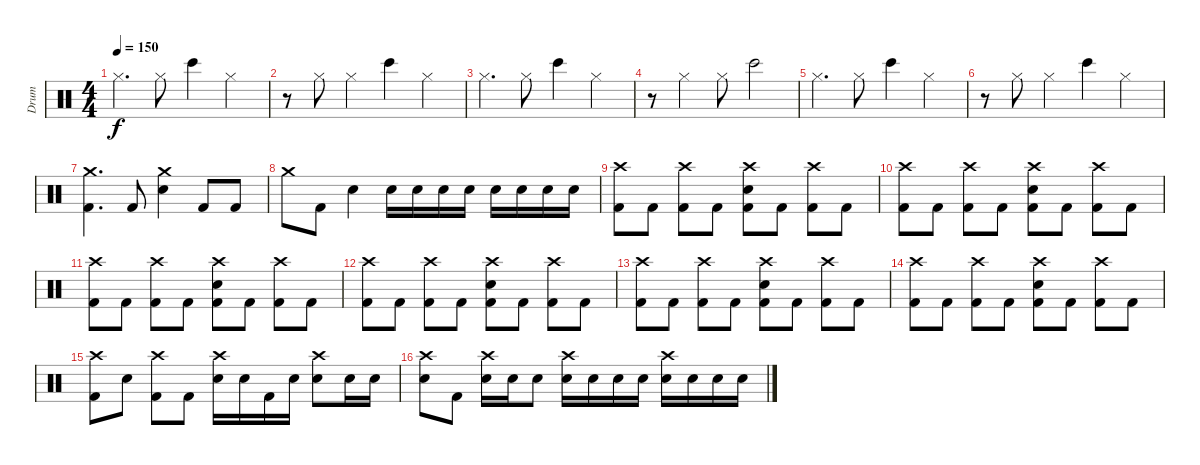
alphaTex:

\track ("Drum" "Drum") {instrument percussion}
\staff {score}
\articulation defaults
\ts (4 4)
\tempo 150
\clef neutral
\ks c "Hi-Hat (closed)".4{d dy f} "Hi-Hat (closed)".8 "Bongo High (hit)".4 "Hi-Hat (closed)".4
|
r.8 "Hi-Hat (closed)".8 "Hi-Hat (closed)".4 "Bongo High (hit)".4 "Hi-Hat (closed)".4 |
"Hi-Hat (closed)".4{d} "Hi-Hat (closed)".8 "Bongo High (hit)".4 "Hi-Hat (closed)".4 |
r.8 "Hi-Hat (closed)".4 "Hi-Hat (closed)".8 "Bongo High (hit)".2 |
"Hi-Hat (closed)".4{d} "Hi-Hat (closed)".8 "Bongo High (hit)".4 "Hi-Hat (closed)".4 |
r.8 "Hi-Hat (closed)".8 "Hi-Hat (closed)".4 "Bongo High (hit)".4 "Hi-Hat (closed)".4 |
("Crash medium (hit)" "Kick (hit) 2").4{d} "Kick (hit) 2".8 ("Crash medium (hit)" "Electric Snare (hit)").4 "Kick (hit) 2".8 "Kick (hit) 2".8 |
"Crash medium (hit)".8 "Kick (hit) 2".8 "Electric Snare (hit)".4 "Electric Snare (hit)".16 "Electric Snare (hit)".16 "Electric Snare (hit)".16 "Electric Snare (hit)".16 "Electric Snare (hit)".16 "Electric Snare (hit)".16 "Electric Snare (hit)".16 "Electric Snare (hit)".16 |
("Crash high (hit)" "Kick (hit) 2").8 "Kick (hit) 2".8 ("Crash high (hit)" "Kick (hit) 2").8 "Kick (hit) 2".8 ("Crash high (hit)" "Electric Snare (hit)" "Kick (hit) 2").8 "Kick (hit) 2".8 ("Crash high (hit)" "Kick (hit) 2").8 "Kick (hit) 2".8 |
("Crash high (hit)" "Kick (hit) 2").8 "Kick (hit) 2".8 ("Crash high (hit)" "Kick (hit) 2").8 "Kick (hit) 2".8 ("Crash high (hit)" "Electric Snare (hit)" "Kick (hit) 2").8 "Kick (hit) 2".8 ("Crash high (hit)" "Kick (hit) 2").8 "Kick (hit) 2".8 |
("Crash high (hit)" "Kick (hit) 2").8 "Kick (hit) 2".8 ("Crash high (hit)" "Kick (hit) 2").8 "Kick (hit) 2".8 ("Crash high (hit)" "Electric Snare (hit)" "Kick (hit) 2").8 "Kick (hit) 2".8 ("Crash high (hit)" "Kick (hit) 2").8 "Kick (hit) 2".8 |
("Crash high (hit)" "Kick (hit) 2").8 "Kick (hit) 2".8 ("Crash high (hit)" "Kick (hit) 2").8 "Kick (hit) 2".8 ("Crash high (hit)" "Electric Snare (hit)" "Kick (hit) 2").8 "Kick (hit) 2".8 ("Crash high (hit)" "Kick (hit) 2").8 "Kick (hit) 2".8 |
("Crash high (hit)" "Kick (hit) 2").8 "Kick (hit) 2".8 ("Crash high (hit)" "Kick (hit) 2").8 "Kick (hit) 2".8 ("Crash high (hit)" "Electric Snare (hit)" "Kick (hit) 2").8 "Kick (hit) 2".8 ("Crash high (hit)" "Kick (hit) 2").8 "Kick (hit) 2".8 |
("Crash high (hit)" "Kick (hit) 2").8 "Kick (hit) 2".8 ("Crash high (hit)" "Kick (hit) 2").8 "Kick (hit) 2".8 ("Crash high (hit)" "Electric Snare (hit)" "Kick (hit) 2").8 "Kick (hit) 2".8 ("Crash high (hit)" "Kick (hit) 2").8 "Kick (hit) 2".8 |
("Crash high (hit)" "Kick (hit) 2").8 "Electric Snare (hit)".8 ("Crash high (hit)" "Kick (hit) 2").8 "Kick (hit) 2".8 ("Crash high (hit)" "Electric Snare (hit)").16 "Electric Snare (hit)".16 "Kick (hit) 2".16 "Electric Snare (hit)".16 ("Crash high (hit)" "Electric Snare (hit)").8 "Electric Snare (hit)".16 "Electric Snare (hit)".16 |
("Crash high (hit)" "Electric Snare (hit)").8 "Kick (hit) 2".8 ("Crash high (hit)" "Electric Snare (hit)").16 "Electric Snare (hit)".16 "Electric Snare (hit)".8 ("Crash high (hit)" "Electric Snare (hit)").16 "Electric Snare (hit)".16 "Electric Snare (hit)".16 "Electric Snare (hit)".16 ("Crash high (hit)" "Electric Snare (hit)").16 "Electric Snare (hit)".16 "Electric Snare (hit)".16 "Electric Snare (hit)".16
